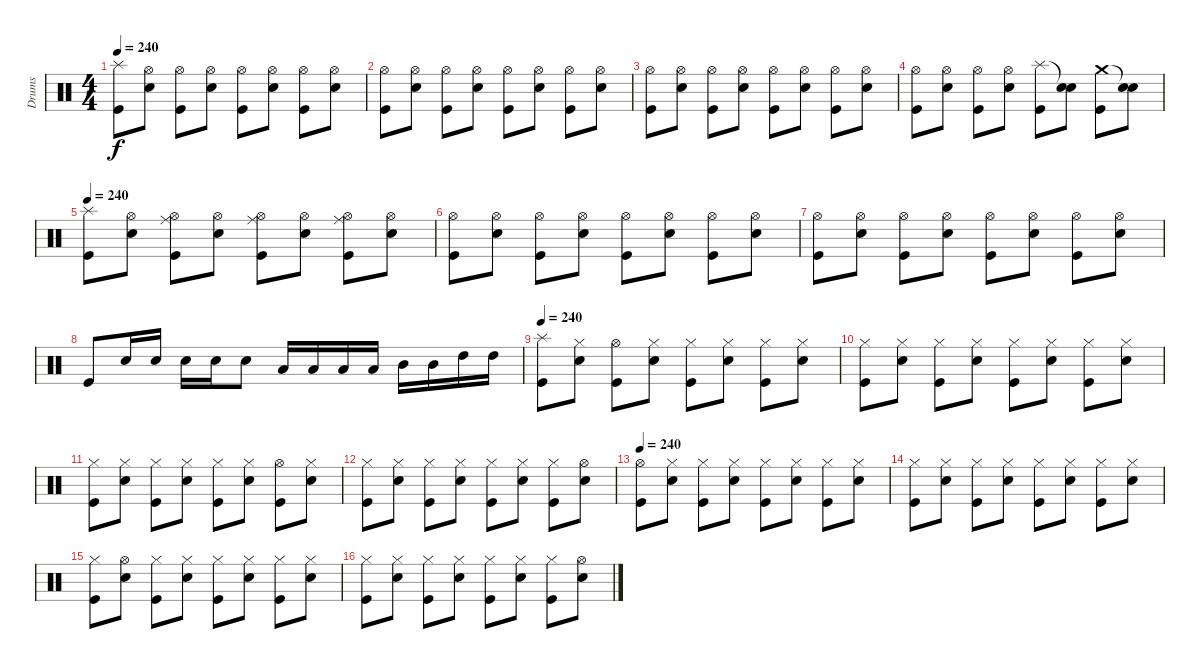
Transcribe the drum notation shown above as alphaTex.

\track ("Drums" "Drums") {instrument percussion}
\staff {score}
\articulation defaults
\ts (4 4)
\tempo 240
\clef neutral
\ks c
("Splash (hit)" "Kick (hit)").8{dy f} ("Hi-Hat (open)" "Electric Snare (hit)").8 ("Hi-Hat (open)" "Kick (hit)").8 ("Hi-Hat (open)" "Electric Snare (hit)").8 ("Hi-Hat (open)" "Kick (hit)").8 ("Hi-Hat (open)" "Electric Snare (hit)").8 ("Hi-Hat (open)" "Kick (hit)").8 ("Hi-Hat (open)" "Electric Snare (hit)").8 |
("Hi-Hat (open)" "Kick (hit)").8 ("Hi-Hat (open)" "Electric Snare (hit)").8 ("Hi-Hat (open)" "Kick (hit)").8 ("Hi-Hat (open)" "Electric Snare (hit)").8 ("Hi-Hat (open)" "Kick (hit)").8 ("Hi-Hat (open)" "Electric Snare (hit)").8 ("Hi-Hat (open)" "Kick (hit)").8 ("Hi-Hat (open)" "Electric Snare (hit)").8 |
("Hi-Hat (open)" "Kick (hit)").8 ("Hi-Hat (open)" "Electric Snare (hit)").8 ("Hi-Hat (open)" "Kick (hit)").8 ("Hi-Hat (open)" "Electric Snare (hit)").8 ("Hi-Hat (open)" "Kick (hit)").8 ("Hi-Hat (open)" "Electric Snare (hit)").8 ("Hi-Hat (open)" "Kick (hit)").8 ("Hi-Hat (open)" "Electric Snare (hit)").8 |
("Hi-Hat (open)" "Kick (hit)").8 ("Hi-Hat (open)" "Electric Snare (hit)").8 ("Hi-Hat (open)" "Kick (hit)").8 ("Hi-Hat (open)" "Electric Snare (hit)").8 ("Splash (hit)" "Kick (hit)").8 ("Snare (hit)"{t} "Electric Snare (hit)").8 ("Crash medium (hit)" "Kick (hit)").8 ("Snare (hit)"{t} "Electric Snare (hit)").8 |
\tempo 240
("Splash (hit)" "Kick (hit)").8 ("Hi-Hat (open)" "Electric Snare (hit)").8 ("Ride (middle)" "Hi-Hat (open)" "Kick (hit)").8 ("Hi-Hat (open)" "Electric Snare (hit)").8 ("Ride (middle)" "Hi-Hat (open)" "Kick (hit)").8 ("Hi-Hat (open)" "Electric Snare (hit)").8 ("Ride (middle)" "Hi-Hat (open)" "Kick (hit)").8 ("Hi-Hat (open)" "Electric Snare (hit)").8 |
("Hi-Hat (open)" "Kick (hit)").8 ("Hi-Hat (open)" "Electric Snare (hit)").8 ("Hi-Hat (open)" "Kick (hit)").8 ("Hi-Hat (open)" "Electric Snare (hit)").8 ("Hi-Hat (open)" "Kick (hit)").8 ("Hi-Hat (open)" "Electric Snare (hit)").8 ("Hi-Hat (open)" "Kick (hit)").8 ("Hi-Hat (open)" "Electric Snare (hit)").8 |
("Hi-Hat (open)" "Kick (hit)").8 ("Hi-Hat (open)" "Electric Snare (hit)").8 ("Hi-Hat (open)" "Kick (hit)").8 ("Hi-Hat (open)" "Electric Snare (hit)").8 ("Hi-Hat (open)" "Kick (hit)").8 ("Hi-Hat (open)" "Electric Snare (hit)").8 ("Hi-Hat (open)" "Kick (hit)").8 ("Hi-Hat (open)" "Electric Snare (hit)").8 |
"Kick (hit)".8 "Electric Snare (hit)".16 "Electric Snare (hit)".16 "Electric Snare (hit)".16 "Electric Snare (hit)".16 "Electric Snare (hit)".8 "Low Tom (hit)".16 "Low Tom (hit)".16 "Low Tom (hit)".16 "Low Tom (hit)".16 "Mid Tom (hit)".16 "Mid Tom (hit)".16 "High Tom (hit)".16 "High Tom (hit)".16 |
\tempo 240
("Splash (hit)" "Kick (hit)").8 ("Hi-Hat (closed)" "Electric Snare (hit)").8 ("Hi-Hat (open)" "Kick (hit)").8 ("Hi-Hat (closed)" "Electric Snare (hit)").8 ("Hi-Hat (closed)" "Kick (hit)").8 ("Hi-Hat (closed)" "Electric Snare (hit)").8 ("Hi-Hat (closed)" "Kick (hit)").8 ("Hi-Hat (closed)" "Electric Snare (hit)").8 |
("Hi-Hat (closed)" "Kick (hit)").8 ("Hi-Hat (closed)" "Electric Snare (hit)").8 ("Hi-Hat (closed)" "Kick (hit)").8 ("Hi-Hat (closed)" "Electric Snare (hit)").8 ("Hi-Hat (closed)" "Kick (hit)").8 ("Hi-Hat (closed)" "Electric Snare (hit)").8 ("Hi-Hat (closed)" "Kick (hit)").8 ("Hi-Hat (closed)" "Electric Snare (hit)").8 |
("Hi-Hat (closed)" "Kick (hit)").8 ("Hi-Hat (closed)" "Electric Snare (hit)").8 ("Hi-Hat (closed)" "Kick (hit)").8 ("Hi-Hat (closed)" "Electric Snare (hit)").8 ("Hi-Hat (closed)" "Kick (hit)").8 ("Hi-Hat (closed)" "Electric Snare (hit)").8 ("Hi-Hat (open)" "Kick (hit)").8 ("Hi-Hat (closed)" "Electric Snare (hit)").8 |
("Hi-Hat (closed)" "Kick (hit)").8 ("Hi-Hat (closed)" "Electric Snare (hit)").8 ("Hi-Hat (closed)" "Kick (hit)").8 ("Hi-Hat (closed)" "Electric Snare (hit)").8 ("Hi-Hat (closed)" "Kick (hit)").8 ("Hi-Hat (closed)" "Electric Snare (hit)").8 ("Hi-Hat (closed)" "Kick (hit)").8 ("Hi-Hat (open)" "Electric Snare (hit)").8 |
\tempo 240
("Hi-Hat (open)" "Kick (hit)").8 ("Hi-Hat (closed)" "Electric Snare (hit)").8 ("Hi-Hat (closed)" "Kick (hit)").8 ("Hi-Hat (closed)" "Electric Snare (hit)").8 ("Hi-Hat (closed)" "Kick (hit)").8 ("Hi-Hat (closed)" "Electric Snare (hit)").8 ("Hi-Hat (closed)" "Kick (hit)").8 ("Hi-Hat (closed)" "Electric Snare (hit)").8 |
("Hi-Hat (closed)" "Kick (hit)").8 ("Hi-Hat (closed)" "Electric Snare (hit)").8 ("Hi-Hat (closed)" "Kick (hit)").8 ("Hi-Hat (closed)" "Electric Snare (hit)").8 ("Hi-Hat (closed)" "Kick (hit)").8 ("Hi-Hat (closed)" "Electric Snare (hit)").8 ("Hi-Hat (closed)" "Kick (hit)").8 ("Hi-Hat (closed)" "Electric Snare (hit)").8 |
("Hi-Hat (closed)" "Kick (hit)").8 ("Hi-Hat (open)" "Electric Snare (hit)").8 ("Hi-Hat (closed)" "Kick (hit)").8 ("Hi-Hat (closed)" "Electric Snare (hit)").8 ("Hi-Hat (closed)" "Kick (hit)").8 ("Hi-Hat (closed)" "Electric Snare (hit)").8 ("Hi-Hat (closed)" "Kick (hit)").8 ("Hi-Hat (closed)" "Electric Snare (hit)").8 |
("Hi-Hat (closed)" "Kick (hit)").8 ("Hi-Hat (closed)" "Electric Snare (hit)").8 ("Hi-Hat (closed)" "Kick (hit)").8 ("Hi-Hat (closed)" "Electric Snare (hit)").8 ("Hi-Hat (closed)" "Kick (hit)").8 ("Hi-Hat (closed)" "Electric Snare (hit)").8 ("Hi-Hat (closed)" "Kick (hit)").8 ("Hi-Hat (open)" "Electric Snare (hit)").8
